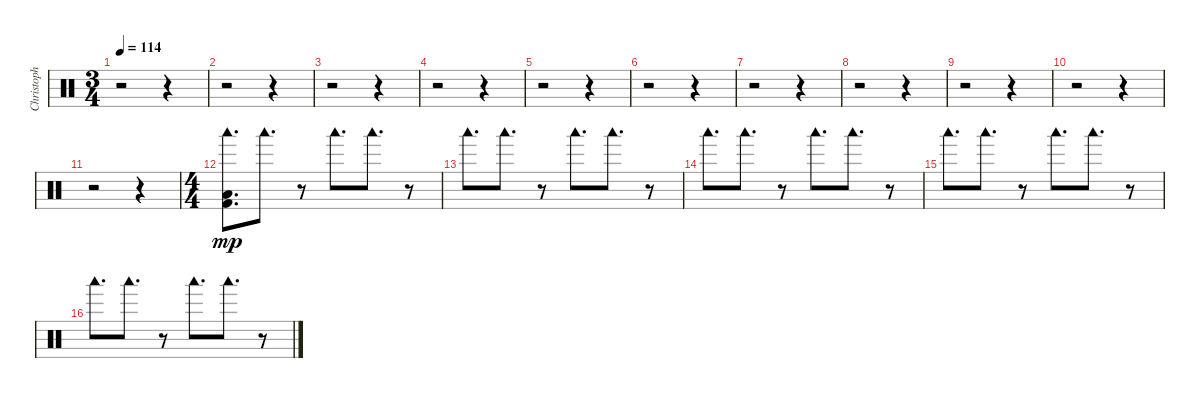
\track ("Christoph Schneider [Drums]" "Christoph ") {instrument percussion}
\staff {score}
\articulation defaults
\ts (3 4)
\tempo 114
\clef neutral
\ks c
r.2{dy mp} r.4 |
r.2 r.4 |
r.2 r.4 |
r.2 r.4 |
r.2 r.4 |
r.2 r.4 |
r.2 r.4 |
r.2 r.4 |
r.2 r.4 |
r.2 r.4 |
r.2 r.4 |
\ts (4 4)
("Woodblock low (hit)" "Low Floor Tom (hit)" "Kick (hit) 2").8{d} "Woodblock low (hit)".8{d} r.8 "Woodblock low (hit)".8{d} "Woodblock low (hit)".8{d} r.8 |
"Woodblock low (hit)".8{d} "Woodblock low (hit)".8{d} r.8 "Woodblock low (hit)".8{d} "Woodblock low (hit)".8{d} r.8 |
"Woodblock low (hit)".8{d} "Woodblock low (hit)".8{d} r.8 "Woodblock low (hit)".8{d} "Woodblock low (hit)".8{d} r.8 |
"Woodblock low (hit)".8{d} "Woodblock low (hit)".8{d} r.8 "Woodblock low (hit)".8{d} "Woodblock low (hit)".8{d} r.8 |
"Woodblock low (hit)".8{d} "Woodblock low (hit)".8{d} r.8 "Woodblock low (hit)".8{d} "Woodblock low (hit)".8{d} r.8
